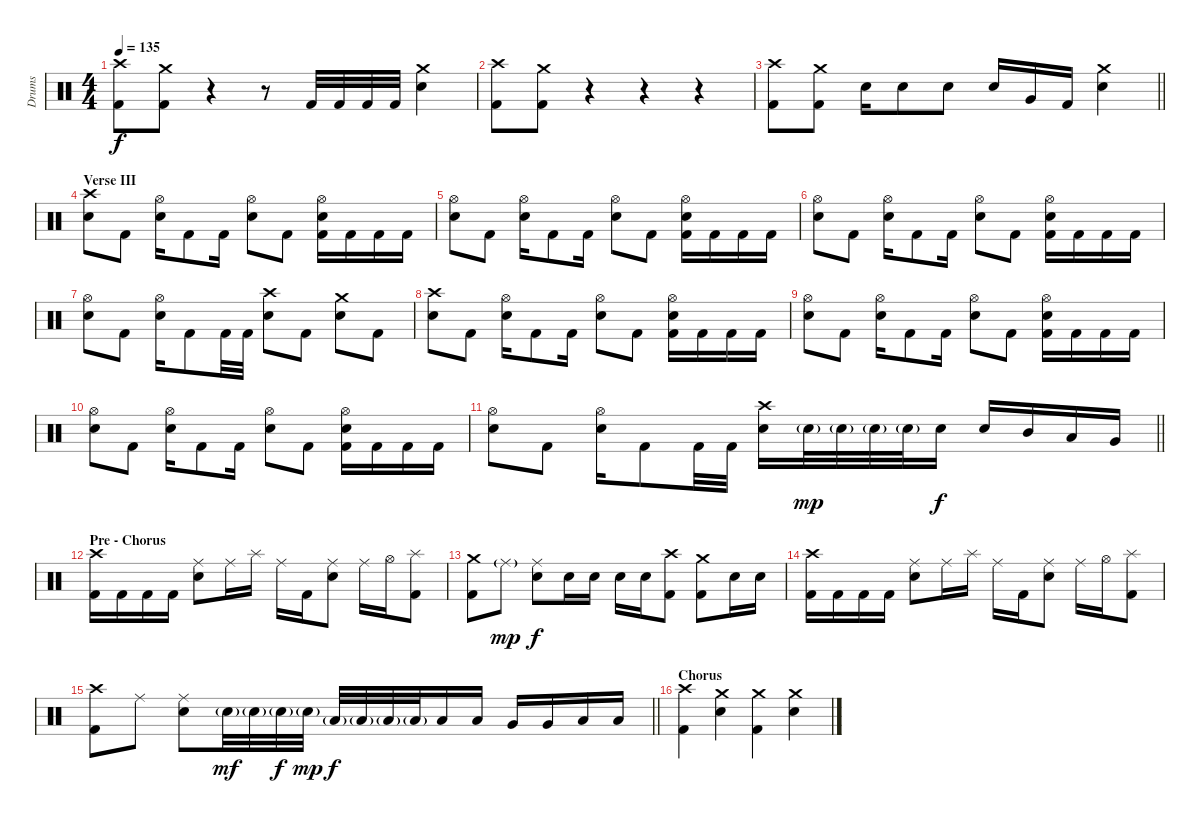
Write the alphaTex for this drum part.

\track ("Drums" "Drums") {instrument percussion}
\staff {score}
\articulation defaults
\ts (4 4)
\tempo 135
\clef neutral
\ks c
("Crash high (hit)" "Kick (hit) 2").8{dy f} ("Crash medium (hit)" "Kick (hit) 2").8 r.4 r.8 "Kick (hit) 2".32 "Kick (hit) 2".32 "Kick (hit) 2".32 "Kick (hit) 2".32 ("Crash medium (hit)" "Electric Snare (hit)").4 |
("Crash high (hit)" "Kick (hit) 2").8 ("Crash medium (hit)" "Kick (hit) 2").8 r.4 r.4 r.4 |
\barLineRight lightlight
("Crash high (hit)" "Kick (hit) 2").8 ("Crash medium (hit)" "Kick (hit) 2").8 "Electric Snare (hit)".16 "Electric Snare (hit)".8 "Electric Snare (hit)".8 "Electric Snare (hit)".16 "Very Low Tom (hit)".16 "Kick (hit) 2".16 ("Crash medium (hit)" "Electric Snare (hit)").4 |
\section ("" "Verse III")
("Crash high (hit)" "Electric Snare (hit)").8 "Kick (hit) 2".8 ("Hi-Hat (open)" "Electric Snare (hit)").16 "Kick (hit) 2".8 "Kick (hit) 2".16 ("Hi-Hat (open)" "Electric Snare (hit)").8 "Kick (hit) 2".8 ("Hi-Hat (open)" "Electric Snare (hit)" "Kick (hit) 2").16 "Kick (hit) 2".16 "Kick (hit) 2".16 "Kick (hit) 2".16 |
("Hi-Hat (open)" "Electric Snare (hit)").8 "Kick (hit) 2".8 ("Hi-Hat (open)" "Electric Snare (hit)").16 "Kick (hit) 2".8 "Kick (hit) 2".16 ("Hi-Hat (open)" "Electric Snare (hit)").8 "Kick (hit) 2".8 ("Hi-Hat (open)" "Electric Snare (hit)" "Kick (hit) 2").16 "Kick (hit) 2".16 "Kick (hit) 2".16 "Kick (hit) 2".16 |
("Hi-Hat (open)" "Electric Snare (hit)").8 "Kick (hit) 2".8 ("Hi-Hat (open)" "Electric Snare (hit)").16 "Kick (hit) 2".8 "Kick (hit) 2".16 ("Hi-Hat (open)" "Electric Snare (hit)").8 "Kick (hit) 2".8 ("Hi-Hat (open)" "Electric Snare (hit)" "Kick (hit) 2").16 "Kick (hit) 2".16 "Kick (hit) 2".16 "Kick (hit) 2".16 |
("Hi-Hat (open)" "Electric Snare (hit)").8 "Kick (hit) 2".8 ("Hi-Hat (open)" "Electric Snare (hit)").16 "Kick (hit) 2".8 "Kick (hit) 2".32 "Kick (hit) 2".32 ("Crash high (hit)" "Electric Snare (hit)").8 "Kick (hit) 2".8 ("Crash medium (hit)" "Electric Snare (hit)").8 "Kick (hit) 2".8 |
("Crash high (hit)" "Electric Snare (hit)").8 "Kick (hit) 2".8 ("Hi-Hat (open)" "Electric Snare (hit)").16 "Kick (hit) 2".8 "Kick (hit) 2".16 ("Hi-Hat (open)" "Electric Snare (hit)").8 "Kick (hit) 2".8 ("Hi-Hat (open)" "Electric Snare (hit)" "Kick (hit) 2").16 "Kick (hit) 2".16 "Kick (hit) 2".16 "Kick (hit) 2".16 |
("Hi-Hat (open)" "Electric Snare (hit)").8 "Kick (hit) 2".8 ("Hi-Hat (open)" "Electric Snare (hit)").16 "Kick (hit) 2".8 "Kick (hit) 2".16 ("Hi-Hat (open)" "Electric Snare (hit)").8 "Kick (hit) 2".8 ("Hi-Hat (open)" "Electric Snare (hit)" "Kick (hit) 2").16 "Kick (hit) 2".16 "Kick (hit) 2".16 "Kick (hit) 2".16 |
("Hi-Hat (open)" "Electric Snare (hit)").8 "Kick (hit) 2".8 ("Hi-Hat (open)" "Electric Snare (hit)").16 "Kick (hit) 2".8 "Kick (hit) 2".16 ("Hi-Hat (open)" "Electric Snare (hit)").8 "Kick (hit) 2".8 ("Hi-Hat (open)" "Electric Snare (hit)" "Kick (hit) 2").16 "Kick (hit) 2".16 "Kick (hit) 2".16 "Kick (hit) 2".16 |
\barLineRight lightlight
("Hi-Hat (open)" "Electric Snare (hit)").8 "Kick (hit) 2".8 ("Hi-Hat (open)" "Electric Snare (hit)").16 "Kick (hit) 2".8 "Kick (hit) 2".32 "Kick (hit) 2".32 ("Crash high (hit)" "Electric Snare (hit)").16 "Electric Snare (hit)"{g}.32{dy mp} "Electric Snare (hit)"{g}.32 "Electric Snare (hit)"{g}.32 "Electric Snare (hit)"{g}.32 "Electric Snare (hit)".16{dy f} "Electric Snare (hit)".16 "Mid Tom (hit)".16 "Low Tom (hit)".16 "Very Low Tom (hit)".16 |
\section ("" "Pre - Chorus")
("Crash high (hit)" "Kick (hit) 2").16 "Kick (hit) 2".16 "Kick (hit) 2".16 "Kick (hit) 2".16 ("Ride (middle)" "Electric Snare (hit)").8 "Ride (middle)".16 "Splash (hit)".16 "Ride (middle)".16 "Kick (hit) 2".16 ("Ride (middle)" "Electric Snare (hit)").8 "Ride (middle)".16 "Hi-Hat (open)".16 ("Splash (hit)" "Kick (hit) 2").8 |
("Crash medium (hit)" "Kick (hit) 2").8 "Ride (middle)"{g}.8{dy mp} ("Ride (middle)" "Electric Snare (hit)").8{dy f} "Electric Snare (hit)".16 "Electric Snare (hit)".16 "Electric Snare (hit)".16 "Electric Snare (hit)".16 ("Crash high (hit)" "Kick (hit) 2").8 ("Crash medium (hit)" "Kick (hit) 2").8 "Electric Snare (hit)".16 "Electric Snare (hit)".16 |
("Crash high (hit)" "Kick (hit) 2").16 "Kick (hit) 2".16 "Kick (hit) 2".16 "Kick (hit) 2".16 ("Ride (middle)" "Electric Snare (hit)").8 "Ride (middle)".16 "Splash (hit)".16 "Ride (middle)".16 "Kick (hit) 2".16 ("Ride (middle)" "Electric Snare (hit)").8 "Ride (middle)".16 "Hi-Hat (open)".16 ("Splash (hit)" "Kick (hit) 2").8 |
\barLineRight lightlight
("Crash high (hit)" "Kick (hit) 2").8 "Ride (middle)".8 ("Ride (middle)" "Electric Snare (hit)").8 "Electric Snare (hit)"{g}.32{dy mf} "Electric Snare (hit)"{g}.32 "Electric Snare (hit)"{g}.32{dy f} "Electric Snare (hit)"{g}.32{dy mp} "Low Tom (hit)"{g}.32{dy f} "Low Tom (hit)"{g}.32 "Low Tom (hit)"{g}.32 "Low Tom (hit)"{g}.32 "Low Tom (hit)".16 "Low Tom (hit)".16 "Very Low Tom (hit)".16 "Very Low Tom (hit)".16 "Low Floor Tom (hit)".16 "Low Floor Tom (hit)".16 |
\section ("" "Chorus")
("Crash high (hit)" "Kick (hit) 2").4 ("Crash medium (hit)" "Electric Snare (hit)").4 ("Crash medium (hit)" "Kick (hit) 2").4 ("Crash medium (hit)" "Electric Snare (hit)").4
